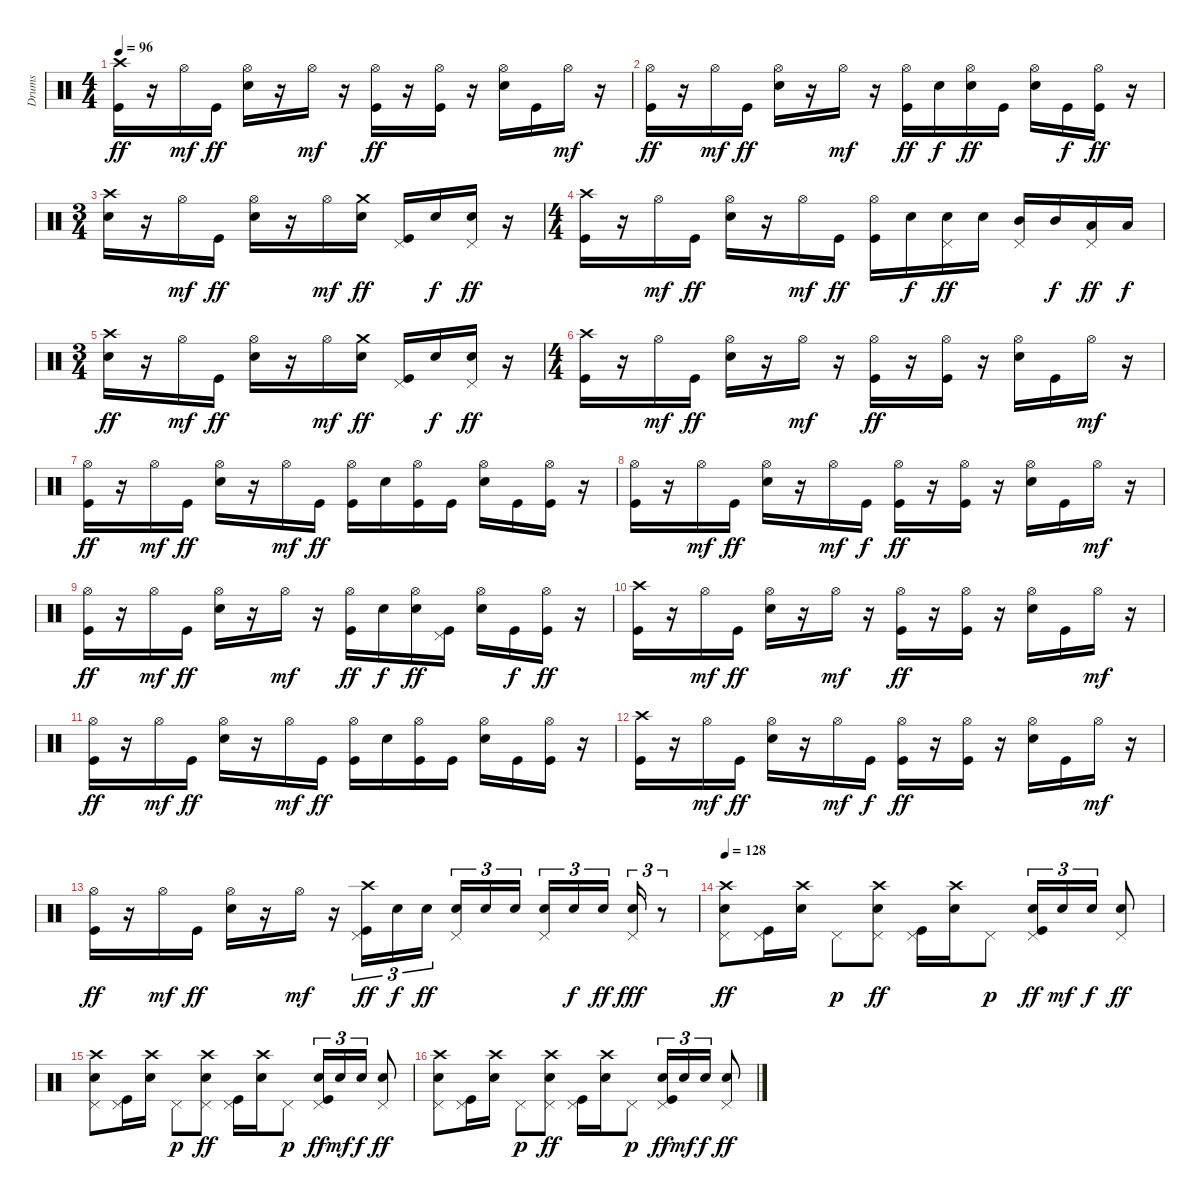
\track ("Drums" "Drums") {instrument percussion}
\staff {score}
\articulation defaults
\ts (4 4)
\tempo 96
\clef neutral
\ks c
("Crash high (hit)" "Kick (hit)").16{dy ff} r.16 "Hi-Hat (open)".16{dy mf} "Kick (hit)".16{dy ff} ("Hi-Hat (open)" "Snare (hit) 2").16 r.16 "Hi-Hat (open)".16{dy mf} r.16 ("Hi-Hat (open)" "Kick (hit)").16{dy ff} r.16 ("Hi-Hat (open)" "Kick (hit)").16 r.16 ("Hi-Hat (open)" "Snare (hit) 2").16 "Kick (hit)".16 "Hi-Hat (open)".16{dy mf} r.16 |
("Hi-Hat (open)" "Kick (hit)").16{dy ff} r.16 "Hi-Hat (open)".16{dy mf} "Kick (hit)".16{dy ff} ("Hi-Hat (open)" "Snare (hit) 2").16 r.16 "Hi-Hat (open)".16{dy mf} r.16 ("Hi-Hat (open)" "Kick (hit)").16{dy ff} "Snare (hit) 2".16{dy f} ("Hi-Hat (open)" "Snare (hit) 2").16{dy ff} "Kick (hit)".16 ("Hi-Hat (open)" "Snare (hit) 2").16 "Kick (hit)".16{dy f} ("Hi-Hat (open)" "Kick (hit)").16{dy ff} r.16 |
\ts (3 4)
("Crash high (hit)" "Snare (hit) 2").16 r.16 "Hi-Hat (open)".16{dy mf} "Kick (hit)".16{dy ff} ("Hi-Hat (open)" "Snare (hit) 2").16 r.16 "Hi-Hat (open)".16{dy mf} ("Crash medium (hit)" "Snare (hit) 2").16{dy ff} ("Pedal Hi-Hat (hit)" "Kick (hit)").16 "Snare (hit) 2".16{dy f} ("Pedal Hi-Hat (hit)" "Snare (hit) 2").16{dy ff} r.16 |
\ts (4 4)
("Crash high (hit)" "Kick (hit)").16 r.16 "Hi-Hat (open)".16{dy mf} "Kick (hit)".16{dy ff} ("Hi-Hat (open)" "Snare (hit) 2").16 r.16 "Hi-Hat (open)".16{dy mf} "Kick (hit)".16{dy ff} ("Hi-Hat (open)" "Kick (hit)").16 "Snare (hit) 2".16{dy f} ("Pedal Hi-Hat (hit)" "Snare (hit) 2").16{dy ff} "Snare (hit) 2".16 ("Pedal Hi-Hat (hit)" "Mid Tom (hit)").16 "Mid Tom (hit)".16{dy f} ("Pedal Hi-Hat (hit)" "Low Tom (hit)").16{dy ff} "Low Tom (hit)".16{dy f} |
\ts (3 4)
("Crash high (hit)" "Snare (hit) 2").16{dy ff} r.16 "Hi-Hat (open)".16{dy mf} "Kick (hit)".16{dy ff} ("Hi-Hat (open)" "Snare (hit) 2").16 r.16 "Hi-Hat (open)".16{dy mf} ("Crash medium (hit)" "Snare (hit) 2").16{dy ff} ("Pedal Hi-Hat (hit)" "Kick (hit)").16 "Snare (hit) 2".16{dy f} ("Pedal Hi-Hat (hit)" "Snare (hit) 2").16{dy ff} r.16 |
\ts (4 4)
("Crash high (hit)" "Kick (hit)").16 r.16 "Hi-Hat (open)".16{dy mf} "Kick (hit)".16{dy ff} ("Hi-Hat (open)" "Snare (hit) 2").16 r.16 "Hi-Hat (open)".16{dy mf} r.16 ("Hi-Hat (open)" "Kick (hit)").16{dy ff} r.16 ("Hi-Hat (open)" "Kick (hit)").16 r.16 ("Hi-Hat (open)" "Snare (hit) 2").16 "Kick (hit)".16 "Hi-Hat (open)".16{dy mf} r.16 |
("Hi-Hat (open)" "Kick (hit)").16{dy ff} r.16 "Hi-Hat (open)".16{dy mf} "Kick (hit)".16{dy ff} ("Hi-Hat (open)" "Snare (hit) 2").16 r.16 "Hi-Hat (open)".16{dy mf} "Kick (hit)".16{dy ff} ("Hi-Hat (open)" "Kick (hit)").16 "Snare (hit) 2".16 ("Hi-Hat (open)" "Kick (hit)").16 "Kick (hit)".16 ("Hi-Hat (open)" "Snare (hit) 2").16 "Kick (hit)".16 ("Hi-Hat (open)" "Kick (hit)").16 r.16 |
("Hi-Hat (open)" "Kick (hit)").16 r.16 "Hi-Hat (open)".16{dy mf} "Kick (hit)".16{dy ff} ("Hi-Hat (open)" "Snare (hit) 2").16 r.16 "Hi-Hat (open)".16{dy mf} "Kick (hit)".16{dy f} ("Hi-Hat (open)" "Kick (hit)").16{dy ff} r.16 ("Hi-Hat (open)" "Kick (hit)").16 r.16 ("Hi-Hat (open)" "Snare (hit) 2").16 "Kick (hit)".16 "Hi-Hat (open)".16{dy mf} r.16 |
("Hi-Hat (open)" "Kick (hit)").16{dy ff} r.16 "Hi-Hat (open)".16{dy mf} "Kick (hit)".16{dy ff} ("Hi-Hat (open)" "Snare (hit) 2").16 r.16 "Hi-Hat (open)".16{dy mf} r.16 ("Hi-Hat (open)" "Kick (hit)").16{dy ff} "Snare (hit) 2".16{dy f} ("Hi-Hat (open)" "Snare (hit) 2").16{dy ff} ("Pedal Hi-Hat (hit)" "Kick (hit)").16 ("Hi-Hat (open)" "Snare (hit) 2").16 "Kick (hit)".16{dy f} ("Hi-Hat (open)" "Kick (hit)").16{dy ff} r.16 |
("Crash high (hit)" "Kick (hit)").16 r.16 "Hi-Hat (open)".16{dy mf} "Kick (hit)".16{dy ff} ("Hi-Hat (open)" "Snare (hit) 2").16 r.16 "Hi-Hat (open)".16{dy mf} r.16 ("Hi-Hat (open)" "Kick (hit)").16{dy ff} r.16 ("Hi-Hat (open)" "Kick (hit)").16 r.16 ("Hi-Hat (open)" "Snare (hit) 2").16 "Kick (hit)".16 "Hi-Hat (open)".16{dy mf} r.16 |
("Hi-Hat (open)" "Kick (hit)").16{dy ff} r.16 "Hi-Hat (open)".16{dy mf} "Kick (hit)".16{dy ff} ("Hi-Hat (open)" "Snare (hit) 2").16 r.16 "Hi-Hat (open)".16{dy mf} "Kick (hit)".16{dy ff} ("Hi-Hat (open)" "Kick (hit)").16 "Snare (hit) 2".16 ("Hi-Hat (open)" "Kick (hit)").16 "Kick (hit)".16 ("Hi-Hat (open)" "Snare (hit) 2").16 "Kick (hit)".16 ("Hi-Hat (open)" "Kick (hit)").16 r.16 |
("Crash high (hit)" "Kick (hit)").16 r.16 "Hi-Hat (open)".16{dy mf} "Kick (hit)".16{dy ff} ("Hi-Hat (open)" "Snare (hit) 2").16 r.16 "Hi-Hat (open)".16{dy mf} "Kick (hit)".16{dy f} ("Hi-Hat (open)" "Kick (hit)").16{dy ff} r.16 ("Hi-Hat (open)" "Kick (hit)").16 r.16 ("Hi-Hat (open)" "Snare (hit) 2").16 "Kick (hit)".16 "Hi-Hat (open)".16{dy mf} r.16 |
("Hi-Hat (open)" "Kick (hit)").16{dy ff} r.16 "Hi-Hat (open)".16{dy mf} "Kick (hit)".16{dy ff} ("Hi-Hat (open)" "Snare (hit) 2").16 r.16 "Hi-Hat (open)".16{dy mf} r.16 ("Crash high (hit)" "Pedal Hi-Hat (hit)" "Kick (hit)").16{tu (3 2) dy ff} "Snare (hit) 2".16{tu (3 2) dy f} "Snare (hit) 2".16{tu (3 2) dy ff} ("Pedal Hi-Hat (hit)" "Snare (hit) 2").16{tu (3 2)} "Snare (hit) 2".16{tu (3 2)} "Snare (hit) 2".16{tu (3 2)} ("Pedal Hi-Hat (hit)" "Snare (hit) 2").16{tu (3 2)} "Snare (hit) 2".16{tu (3 2) dy f} "Snare (hit) 2".16{tu (3 2) dy ff} ("Pedal Hi-Hat (hit)" "Snare (hit) 2").16{tu (3 2) dy fff} r.8{tu (3 2)} |
\tempo 128
("Crash high (hit)" "Pedal Hi-Hat (hit)" "Snare (hit) 2").8{dy ff} ("Pedal Hi-Hat (hit)" "Kick (hit)").16 ("Crash high (hit)" "Snare (hit) 2").16 "Pedal Hi-Hat (hit)".8{dy p} ("Crash high (hit)" "Pedal Hi-Hat (hit)" "Snare (hit) 2").8{dy ff} ("Pedal Hi-Hat (hit)" "Kick (hit)").16 ("Crash high (hit)" "Snare (hit) 2").16 "Pedal Hi-Hat (hit)".8{dy p} ("Pedal Hi-Hat (hit)" "Snare (hit) 2" "Kick (hit)").16{tu (3 2) dy ff} "Snare (hit) 2".16{tu (3 2) dy mf} "Snare (hit) 2".16{tu (3 2) dy f} ("Pedal Hi-Hat (hit)" "Snare (hit) 2").8{dy ff} |
("Crash high (hit)" "Pedal Hi-Hat (hit)" "Snare (hit) 2").8 ("Pedal Hi-Hat (hit)" "Kick (hit)").16 ("Crash high (hit)" "Snare (hit) 2").16 "Pedal Hi-Hat (hit)".8{dy p} ("Crash high (hit)" "Pedal Hi-Hat (hit)" "Snare (hit) 2").8{dy ff} ("Pedal Hi-Hat (hit)" "Kick (hit)").16 ("Crash high (hit)" "Snare (hit) 2").16 "Pedal Hi-Hat (hit)".8{dy p} ("Pedal Hi-Hat (hit)" "Snare (hit) 2" "Kick (hit)").16{tu (3 2) dy ff} "Snare (hit) 2".16{tu (3 2) dy mf} "Snare (hit) 2".16{tu (3 2) dy f} ("Pedal Hi-Hat (hit)" "Snare (hit) 2").8{dy ff} |
("Crash high (hit)" "Pedal Hi-Hat (hit)" "Snare (hit) 2").8 ("Pedal Hi-Hat (hit)" "Kick (hit)").16 ("Crash high (hit)" "Snare (hit) 2").16 "Pedal Hi-Hat (hit)".8{dy p} ("Crash high (hit)" "Pedal Hi-Hat (hit)" "Snare (hit) 2").8{dy ff} ("Pedal Hi-Hat (hit)" "Kick (hit)").16 ("Crash high (hit)" "Snare (hit) 2").16 "Pedal Hi-Hat (hit)".8{dy p} ("Pedal Hi-Hat (hit)" "Snare (hit) 2" "Kick (hit)").16{tu (3 2) dy ff} "Snare (hit) 2".16{tu (3 2) dy mf} "Snare (hit) 2".16{tu (3 2) dy f} ("Pedal Hi-Hat (hit)" "Snare (hit) 2").8{dy ff}
